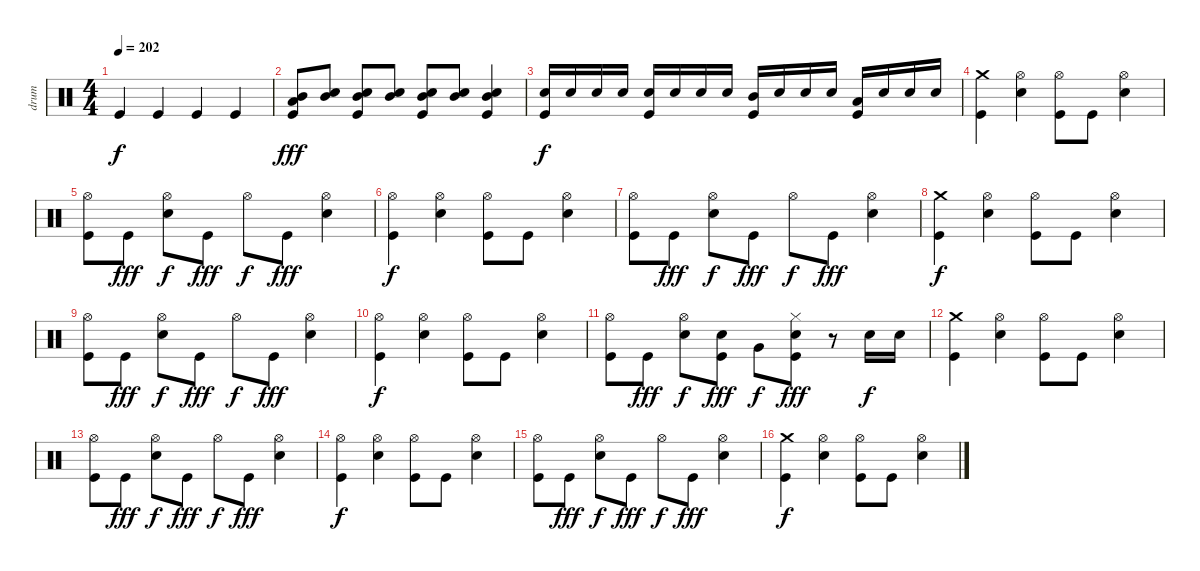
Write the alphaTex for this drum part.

\track ("drum" "drum") {instrument percussion}
\staff {score}
\articulation defaults
\ts (4 4)
\tempo 202
\clef neutral
\ks c "Kick (hit)".4{dy f} "Kick (hit)".4 "Kick (hit)".4 "Kick (hit)".4
|
("Low Floor Tom (hit)" "Mid Tom (hit)" "Kick (hit)").8{dy fff} ("Electric Snare (hit)" "Mid Tom (hit)").8 ("Electric Snare (hit)" "Mid Tom (hit)" "Kick (hit)").8 ("Electric Snare (hit)" "Mid Tom (hit)").8 ("Electric Snare (hit)" "Mid Tom (hit)" "Kick (hit)").8 ("Electric Snare (hit)" "Mid Tom (hit)").8 ("Electric Snare (hit)" "Mid Tom (hit)" "Kick (hit)").4 |
("Electric Snare (hit)" "Kick (hit)").16{dy f} "Electric Snare (hit)".16 "Electric Snare (hit)".16 "Electric Snare (hit)".16 ("Electric Snare (hit)" "Kick (hit)").16 "Electric Snare (hit)".16 "Electric Snare (hit)".16 "Electric Snare (hit)".16 ("Mid Tom (hit)" "Kick (hit)").16 "Electric Snare (hit)".16 "Electric Snare (hit)".16 "Electric Snare (hit)".16 ("Low Tom (hit)" "Kick (hit)").16 "Electric Snare (hit)".16 "Electric Snare (hit)".16 "Electric Snare (hit)".16 |
("Crash medium (hit)" "Kick (hit)").4 ("Hi-Hat (open)" "Electric Snare (hit)").4 ("Hi-Hat (open)" "Kick (hit)").8 "Kick (hit)".8 ("Hi-Hat (open)" "Electric Snare (hit)").4 |
("Hi-Hat (open)" "Kick (hit)").8 "Kick (hit)".8{dy fff} ("Hi-Hat (open)" "Electric Snare (hit)").8{dy f} "Kick (hit)".8{dy fff} "Hi-Hat (open)".8{dy f} "Kick (hit)".8{dy fff} ("Hi-Hat (open)" "Electric Snare (hit)").4 |
("Hi-Hat (open)" "Kick (hit)").4{dy f} ("Hi-Hat (open)" "Electric Snare (hit)").4 ("Hi-Hat (open)" "Kick (hit)").8 "Kick (hit)".8 ("Hi-Hat (open)" "Electric Snare (hit)").4 |
("Hi-Hat (open)" "Kick (hit)").8 "Kick (hit)".8{dy fff} ("Hi-Hat (open)" "Electric Snare (hit)").8{dy f} "Kick (hit)".8{dy fff} "Hi-Hat (open)".8{dy f} "Kick (hit)".8{dy fff} ("Hi-Hat (open)" "Electric Snare (hit)").4 |
("Crash medium (hit)" "Kick (hit)").4{dy f} ("Hi-Hat (open)" "Electric Snare (hit)").4 ("Hi-Hat (open)" "Kick (hit)").8 "Kick (hit)".8 ("Hi-Hat (open)" "Electric Snare (hit)").4 |
("Hi-Hat (open)" "Kick (hit)").8 "Kick (hit)".8{dy fff} ("Hi-Hat (open)" "Electric Snare (hit)").8{dy f} "Kick (hit)".8{dy fff} "Hi-Hat (open)".8{dy f} "Kick (hit)".8{dy fff} ("Hi-Hat (open)" "Electric Snare (hit)").4 |
("Hi-Hat (open)" "Kick (hit)").4{dy f} ("Hi-Hat (open)" "Electric Snare (hit)").4 ("Hi-Hat (open)" "Kick (hit)").8 "Kick (hit)".8 ("Hi-Hat (open)" "Electric Snare (hit)").4 |
("Hi-Hat (open)" "Kick (hit)").8 "Kick (hit)".8{dy fff} ("Hi-Hat (open)" "Electric Snare (hit)").8{dy f} ("Electric Snare (hit)" "Kick (hit)").8{dy fff} "Very Low Tom (hit)".8{dy f} ("Hi-Hat (closed)" "Electric Snare (hit)" "Kick (hit)").8{dy fff} r.8 "Electric Snare (hit)".16{dy f} "Electric Snare (hit)".16 |
("Crash medium (hit)" "Kick (hit)").4 ("Hi-Hat (open)" "Electric Snare (hit)").4 ("Hi-Hat (open)" "Kick (hit)").8 "Kick (hit)".8 ("Hi-Hat (open)" "Electric Snare (hit)").4 |
("Hi-Hat (open)" "Kick (hit)").8 "Kick (hit)".8{dy fff} ("Hi-Hat (open)" "Electric Snare (hit)").8{dy f} "Kick (hit)".8{dy fff} "Hi-Hat (open)".8{dy f} "Kick (hit)".8{dy fff} ("Hi-Hat (open)" "Electric Snare (hit)").4 |
("Hi-Hat (open)" "Kick (hit)").4{dy f} ("Hi-Hat (open)" "Electric Snare (hit)").4 ("Hi-Hat (open)" "Kick (hit)").8 "Kick (hit)".8 ("Hi-Hat (open)" "Electric Snare (hit)").4 |
("Hi-Hat (open)" "Kick (hit)").8 "Kick (hit)".8{dy fff} ("Hi-Hat (open)" "Electric Snare (hit)").8{dy f} "Kick (hit)".8{dy fff} "Hi-Hat (open)".8{dy f} "Kick (hit)".8{dy fff} ("Hi-Hat (open)" "Electric Snare (hit)").4 |
("Crash medium (hit)" "Kick (hit)").4{dy f} ("Hi-Hat (open)" "Electric Snare (hit)").4 ("Hi-Hat (open)" "Kick (hit)").8 "Kick (hit)".8 ("Hi-Hat (open)" "Electric Snare (hit)").4
